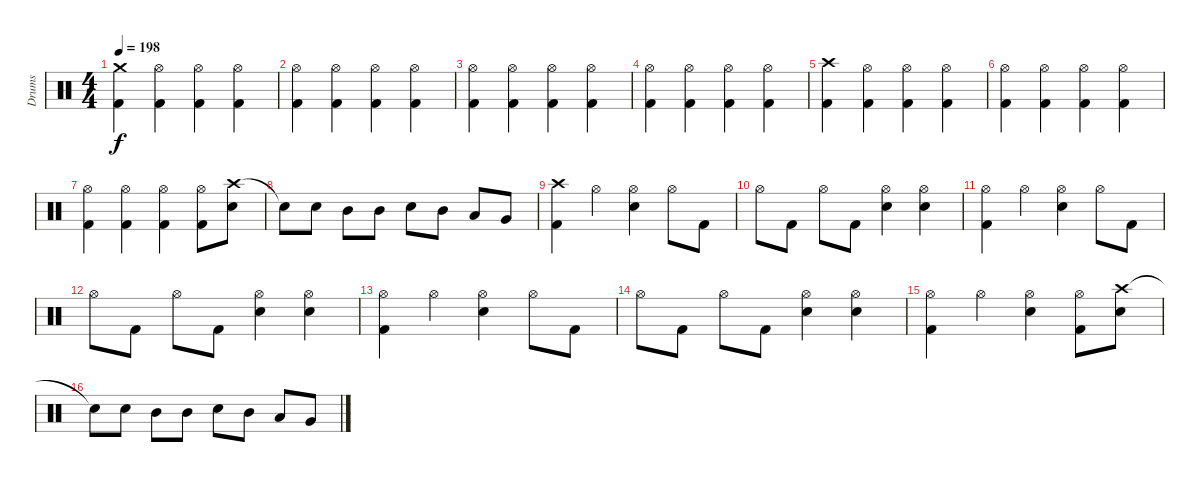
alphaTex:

\track ("Drums" "Drums") {instrument percussion}
\staff {score}
\articulation defaults
\ts (4 4)
\tempo 198
\clef neutral
\ks c
("Crash medium (hit)" "Kick (hit) 2").4{dy f} ("Hi-Hat (open)" "Kick (hit) 2").4 ("Hi-Hat (open)" "Kick (hit) 2").4 ("Hi-Hat (open)" "Kick (hit) 2").4 |
("Hi-Hat (open)" "Kick (hit) 2").4 ("Hi-Hat (open)" "Kick (hit) 2").4 ("Hi-Hat (open)" "Kick (hit) 2").4 ("Hi-Hat (open)" "Kick (hit) 2").4 |
("Hi-Hat (open)" "Kick (hit) 2").4 ("Hi-Hat (open)" "Kick (hit) 2").4 ("Hi-Hat (open)" "Kick (hit) 2").4 ("Hi-Hat (open)" "Kick (hit) 2").4 |
("Hi-Hat (open)" "Kick (hit) 2").4 ("Hi-Hat (open)" "Kick (hit) 2").4 ("Hi-Hat (open)" "Kick (hit) 2").4 ("Hi-Hat (open)" "Kick (hit) 2").4 |
("Crash high (hit)" "Kick (hit) 2").4 ("Hi-Hat (open)" "Kick (hit) 2").4 ("Hi-Hat (open)" "Kick (hit) 2").4 ("Hi-Hat (open)" "Kick (hit) 2").4 |
("Hi-Hat (open)" "Kick (hit) 2").4 ("Hi-Hat (open)" "Kick (hit) 2").4 ("Hi-Hat (open)" "Kick (hit) 2").4 ("Hi-Hat (open)" "Kick (hit) 2").4 |
("Hi-Hat (open)" "Kick (hit) 2").4 ("Hi-Hat (open)" "Kick (hit) 2").4 ("Hi-Hat (open)" "Kick (hit) 2").4 ("Hi-Hat (open)" "Kick (hit) 2").8 ("Crash high (hit)" "Snare (hit) 2").8 |
"Snare (hit)"{t}.8 "Snare (hit) 2".8 "Mid Tom (hit)".8 "Mid Tom (hit)".8 "Snare (hit) 2".8 "Mid Tom (hit)".8 "Low Tom (hit)".8 "Very Low Tom (hit)".8 |
("Crash high (hit)" "Kick (hit) 2").4 "Hi-Hat (open)".4 ("Hi-Hat (open)" "Snare (hit) 2").4 "Hi-Hat (open)".8 "Kick (hit) 2".8 |
"Hi-Hat (open)".8 "Kick (hit) 2".8 "Hi-Hat (open)".8 "Kick (hit) 2".8 ("Hi-Hat (open)" "Snare (hit) 2").4 ("Hi-Hat (open)" "Snare (hit) 2").4 |
("Hi-Hat (open)" "Kick (hit) 2").4 "Hi-Hat (open)".4 ("Hi-Hat (open)" "Snare (hit) 2").4 "Hi-Hat (open)".8 "Kick (hit) 2".8 |
"Hi-Hat (open)".8 "Kick (hit) 2".8 "Hi-Hat (open)".8 "Kick (hit) 2".8 ("Hi-Hat (open)" "Snare (hit) 2").4 ("Hi-Hat (open)" "Snare (hit) 2").4 |
("Hi-Hat (open)" "Kick (hit) 2").4 "Hi-Hat (open)".4 ("Hi-Hat (open)" "Snare (hit) 2").4 "Hi-Hat (open)".8 "Kick (hit) 2".8 |
"Hi-Hat (open)".8 "Kick (hit) 2".8 "Hi-Hat (open)".8 "Kick (hit) 2".8 ("Hi-Hat (open)" "Snare (hit) 2").4 ("Hi-Hat (open)" "Snare (hit) 2").4 |
("Hi-Hat (open)" "Kick (hit) 2").4 "Hi-Hat (open)".4 ("Hi-Hat (open)" "Snare (hit) 2").4 ("Hi-Hat (open)" "Kick (hit) 2").8 ("Crash high (hit)" "Snare (hit) 2").8 |
"Snare (hit)"{t}.8 "Snare (hit) 2".8 "Mid Tom (hit)".8 "Mid Tom (hit)".8 "Snare (hit) 2".8 "Mid Tom (hit)".8 "Low Tom (hit)".8 "Very Low Tom (hit)".8
